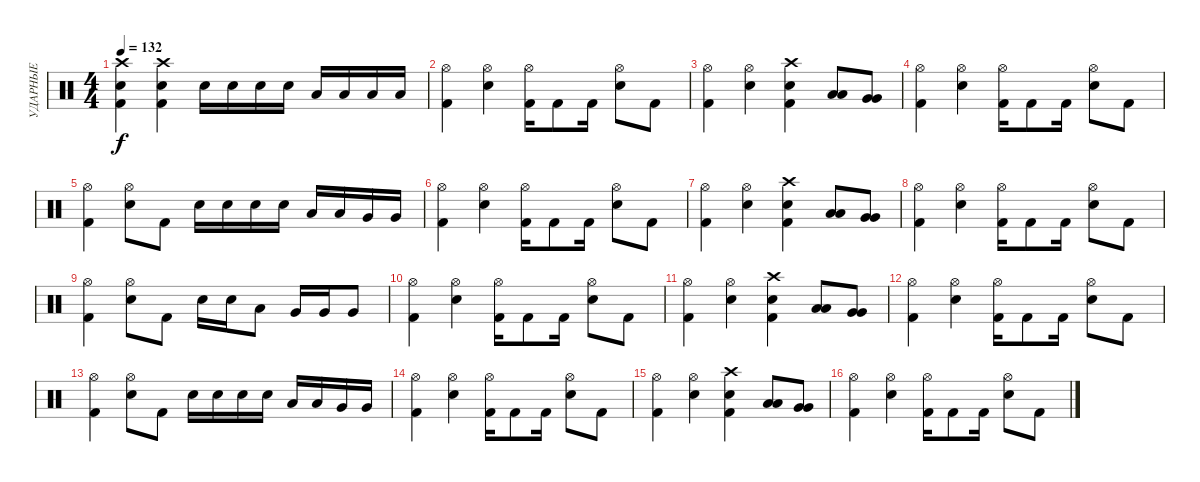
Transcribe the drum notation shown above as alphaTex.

\track ("УДАРНЫЕ" "УДАРНЫЕ") {instrument percussion}
\staff {score}
\articulation defaults
\ts (4 4)
\tempo 132
\clef neutral
\ks c
("Crash high (hit)" "Snare (hit) 2" "Kick (hit) 2").4{dy f} ("Crash high (hit)" "Hand Clap (hit)" "Kick (hit) 2").4 "Snare (hit) 2".16 "Snare (hit) 2".16 "Snare (hit) 2".16 "Snare (hit) 2".16 "Low Tom (hit)".16 "Low Tom (hit)".16 "Low Tom (hit)".16 "Low Tom (hit)".16 |
("Hi-Hat (open)" "Kick (hit) 2").4 ("Hi-Hat (open)" "Snare (hit) 2").4 ("Hi-Hat (open)" "Kick (hit) 2").16 "Kick (hit) 2".8 "Kick (hit) 2".16 ("Hi-Hat (open)" "Snare (hit) 2").8 "Kick (hit) 2".8 |
("Kick (hit) 2" "Hi-Hat (open)").4 ("Snare (hit) 2" "Hi-Hat (open)").4 ("Snare (hit) 2" "Kick (hit) 2" "Crash high (hit)").4 ("Low Tom (hit)" "Low Tom (hit)").8 ("Very Low Tom (hit)" "Very Low Tom (hit)").8 |
("Hi-Hat (open)" "Kick (hit) 2").4 ("Hi-Hat (open)" "Snare (hit) 2").4 ("Hi-Hat (open)" "Kick (hit) 2").16 "Kick (hit) 2".8 "Kick (hit) 2".16 ("Hi-Hat (open)" "Snare (hit) 2").8 "Kick (hit) 2".8 |
("Hi-Hat (open)" "Kick (hit) 2").4 ("Hi-Hat (open)" "Snare (hit) 2").8 "Kick (hit) 2".8 "Snare (hit) 2".16 "Snare (hit) 2".16 "Snare (hit) 2".16 "Snare (hit) 2".16 "Low Tom (hit)".16 "Low Tom (hit)".16 "Very Low Tom (hit)".16 "Very Low Tom (hit)".16 |
("Hi-Hat (open)" "Kick (hit) 2").4 ("Hi-Hat (open)" "Snare (hit) 2").4 ("Hi-Hat (open)" "Kick (hit) 2").16 "Kick (hit) 2".8 "Kick (hit) 2".16 ("Hi-Hat (open)" "Snare (hit) 2").8 "Kick (hit) 2".8 |
("Kick (hit) 2" "Hi-Hat (open)").4 ("Snare (hit) 2" "Hi-Hat (open)").4 ("Snare (hit) 2" "Kick (hit) 2" "Crash high (hit)").4 ("Low Tom (hit)" "Low Tom (hit)").8 ("Very Low Tom (hit)" "Very Low Tom (hit)").8 |
("Hi-Hat (open)" "Kick (hit) 2").4 ("Hi-Hat (open)" "Snare (hit) 2").4 ("Hi-Hat (open)" "Kick (hit) 2").16 "Kick (hit) 2".8 "Kick (hit) 2".16 ("Hi-Hat (open)" "Snare (hit) 2").8 "Kick (hit) 2".8 |
("Hi-Hat (open)" "Kick (hit) 2").4 ("Hi-Hat (open)" "Snare (hit) 2").8 "Kick (hit) 2".8 "Snare (hit) 2".16 "Snare (hit) 2".16 "Low Tom (hit)".8 "Very Low Tom (hit)".16 "Very Low Tom (hit)".16 "Very Low Tom (hit)".8 |
("Hi-Hat (open)" "Kick (hit) 2").4 ("Hi-Hat (open)" "Snare (hit) 2").4 ("Hi-Hat (open)" "Kick (hit) 2").16 "Kick (hit) 2".8 "Kick (hit) 2".16 ("Hi-Hat (open)" "Snare (hit) 2").8 "Kick (hit) 2".8 |
("Kick (hit) 2" "Hi-Hat (open)").4 ("Snare (hit) 2" "Hi-Hat (open)").4 ("Snare (hit) 2" "Kick (hit) 2" "Crash high (hit)").4 ("Low Tom (hit)" "Low Tom (hit)").8 ("Very Low Tom (hit)" "Very Low Tom (hit)").8 |
("Hi-Hat (open)" "Kick (hit) 2").4 ("Hi-Hat (open)" "Snare (hit) 2").4 ("Hi-Hat (open)" "Kick (hit) 2").16 "Kick (hit) 2".8 "Kick (hit) 2".16 ("Hi-Hat (open)" "Snare (hit) 2").8 "Kick (hit) 2".8 |
("Hi-Hat (open)" "Kick (hit) 2").4 ("Hi-Hat (open)" "Snare (hit) 2").8 "Kick (hit) 2".8 "Snare (hit) 2".16 "Snare (hit) 2".16 "Snare (hit) 2".16 "Snare (hit) 2".16 "Low Tom (hit)".16 "Low Tom (hit)".16 "Very Low Tom (hit)".16 "Very Low Tom (hit)".16 |
("Hi-Hat (open)" "Kick (hit) 2").4 ("Hi-Hat (open)" "Snare (hit) 2").4 ("Hi-Hat (open)" "Kick (hit) 2").16 "Kick (hit) 2".8 "Kick (hit) 2".16 ("Hi-Hat (open)" "Snare (hit) 2").8 "Kick (hit) 2".8 |
("Kick (hit) 2" "Hi-Hat (open)").4 ("Snare (hit) 2" "Hi-Hat (open)").4 ("Snare (hit) 2" "Kick (hit) 2" "Crash high (hit)").4 ("Low Tom (hit)" "Low Tom (hit)").8 ("Very Low Tom (hit)" "Very Low Tom (hit)").8 |
("Hi-Hat (open)" "Kick (hit) 2").4 ("Hi-Hat (open)" "Snare (hit) 2").4 ("Hi-Hat (open)" "Kick (hit) 2").16 "Kick (hit) 2".8 "Kick (hit) 2".16 ("Hi-Hat (open)" "Snare (hit) 2").8 "Kick (hit) 2".8
